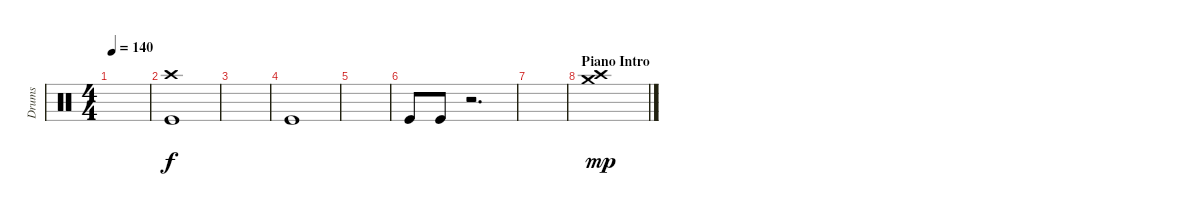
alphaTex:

\track ("Drums" "Drums") {instrument percussion}
\staff {score}
\articulation defaults
\ts (4 4)
\tempo 140
\clef neutral
\ks c
|
("Crash high (hit)" "Kick (hit)").1 |
|
"Kick (hit)".1{dy f} |
|
"Kick (hit)".8 "Kick (hit)".8 r.2{d} |
|
\section ("" "Piano Intro")
("Crash medium (hit)" "Crash high (hit)").1{dy mp}
